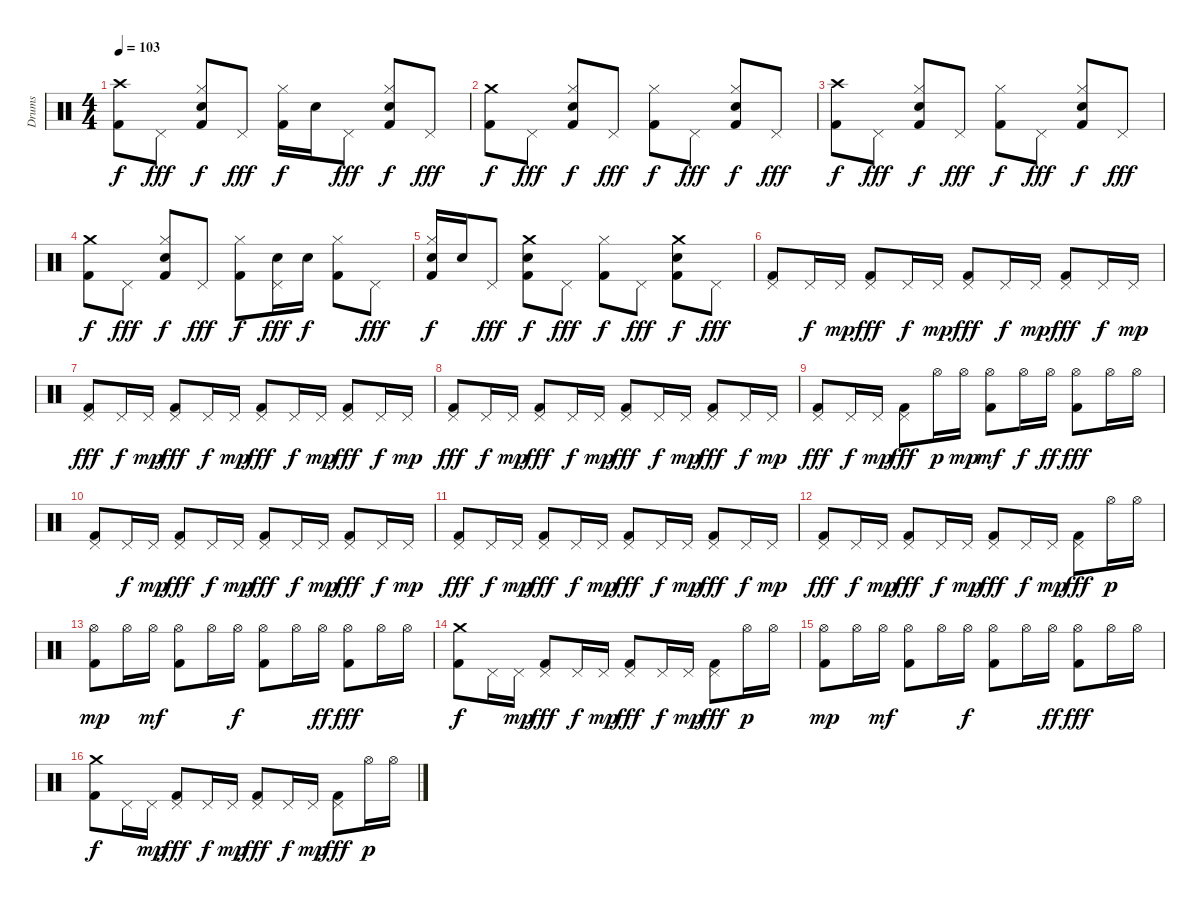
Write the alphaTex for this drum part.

\track ("Drums" "Drums") {instrument percussion}
\staff {score}
\articulation defaults
\ts (4 4)
\tempo 103
\clef neutral
\ks c
("Kick (hit) 2" "Crash high (hit)").8{dy f} "Pedal Hi-Hat (hit)".8{dy fff} ("Kick (hit) 2" "Hi-Hat (closed)" "Snare (hit) 2").8{dy f} "Pedal Hi-Hat (hit)".8{dy fff} ("Kick (hit) 2" "Hi-Hat (closed)").16{dy f} "Snare (hit) 2".16 "Pedal Hi-Hat (hit)".8{dy fff} ("Kick (hit) 2" "Hi-Hat (closed)" "Snare (hit) 2").8{dy f} "Pedal Hi-Hat (hit)".8{dy fff} |
("Kick (hit) 2" "Crash medium (hit)").8{dy f} "Pedal Hi-Hat (hit)".8{dy fff} ("Kick (hit) 2" "Hi-Hat (closed)" "Snare (hit) 2").8{dy f} "Pedal Hi-Hat (hit)".8{dy fff} ("Kick (hit) 2" "Hi-Hat (closed)").8{dy f} "Pedal Hi-Hat (hit)".8{dy fff} ("Kick (hit) 2" "Hi-Hat (closed)" "Snare (hit) 2").8{dy f} "Pedal Hi-Hat (hit)".8{dy fff} |
("Kick (hit) 2" "Crash high (hit)").8{dy f} "Pedal Hi-Hat (hit)".8{dy fff} ("Kick (hit) 2" "Hi-Hat (closed)" "Snare (hit) 2").8{dy f} "Pedal Hi-Hat (hit)".8{dy fff} ("Kick (hit) 2" "Hi-Hat (closed)").8{dy f} "Pedal Hi-Hat (hit)".8{dy fff} ("Kick (hit) 2" "Hi-Hat (closed)" "Snare (hit) 2").8{dy f} "Pedal Hi-Hat (hit)".8{dy fff} |
("Kick (hit) 2" "Crash medium (hit)").8{dy f} "Pedal Hi-Hat (hit)".8{dy fff} ("Kick (hit) 2" "Hi-Hat (closed)" "Snare (hit) 2").8{dy f} "Pedal Hi-Hat (hit)".8{dy fff} ("Kick (hit) 2" "Hi-Hat (closed)").8{dy f} ("Pedal Hi-Hat (hit)" "Snare (hit) 2").16{dy fff} "Snare (hit) 2".16{dy f} ("Kick (hit) 2" "Hi-Hat (closed)").8 "Pedal Hi-Hat (hit)".8{dy fff} |
("Kick (hit) 2" "Hi-Hat (closed)" "Snare (hit) 2").16{dy f} "Snare (hit) 2".16 "Pedal Hi-Hat (hit)".8{dy fff} ("Kick (hit) 2" "Crash medium (hit)" "Snare (hit) 2").8{dy f} "Pedal Hi-Hat (hit)".8{dy fff} ("Kick (hit) 2" "Hi-Hat (closed)").8{dy f} "Pedal Hi-Hat (hit)".8{dy fff} ("Kick (hit) 2" "Crash medium (hit)" "Snare (hit) 2").8{dy f} "Pedal Hi-Hat (hit)".8{dy fff} |
("Kick (hit) 2" "Pedal Hi-Hat (hit)").8 "Pedal Hi-Hat (hit)".16{dy f} "Pedal Hi-Hat (hit)".16{dy mp} ("Kick (hit) 2" "Pedal Hi-Hat (hit)").8{dy fff} "Pedal Hi-Hat (hit)".16{dy f} "Pedal Hi-Hat (hit)".16{dy mp} ("Kick (hit) 2" "Pedal Hi-Hat (hit)").8{dy fff} "Pedal Hi-Hat (hit)".16{dy f} "Pedal Hi-Hat (hit)".16{dy mp} ("Kick (hit) 2" "Pedal Hi-Hat (hit)").8{dy fff} "Pedal Hi-Hat (hit)".16{dy f} "Pedal Hi-Hat (hit)".16{dy mp} |
("Kick (hit) 2" "Pedal Hi-Hat (hit)").8{dy fff} "Pedal Hi-Hat (hit)".16{dy f} "Pedal Hi-Hat (hit)".16{dy mp} ("Kick (hit) 2" "Pedal Hi-Hat (hit)").8{dy fff} "Pedal Hi-Hat (hit)".16{dy f} "Pedal Hi-Hat (hit)".16{dy mp} ("Kick (hit) 2" "Pedal Hi-Hat (hit)").8{dy fff} "Pedal Hi-Hat (hit)".16{dy f} "Pedal Hi-Hat (hit)".16{dy mp} ("Kick (hit) 2" "Pedal Hi-Hat (hit)").8{dy fff} "Pedal Hi-Hat (hit)".16{dy f} "Pedal Hi-Hat (hit)".16{dy mp} |
("Kick (hit) 2" "Pedal Hi-Hat (hit)").8{dy fff} "Pedal Hi-Hat (hit)".16{dy f} "Pedal Hi-Hat (hit)".16{dy mp} ("Kick (hit) 2" "Pedal Hi-Hat (hit)").8{dy fff} "Pedal Hi-Hat (hit)".16{dy f} "Pedal Hi-Hat (hit)".16{dy mp} ("Kick (hit) 2" "Pedal Hi-Hat (hit)").8{dy fff} "Pedal Hi-Hat (hit)".16{dy f} "Pedal Hi-Hat (hit)".16{dy mp} ("Kick (hit) 2" "Pedal Hi-Hat (hit)").8{dy fff} "Pedal Hi-Hat (hit)".16{dy f} "Pedal Hi-Hat (hit)".16{dy mp} |
("Kick (hit) 2" "Pedal Hi-Hat (hit)").8{dy fff} "Pedal Hi-Hat (hit)".16{dy f} "Pedal Hi-Hat (hit)".16{dy mp} ("Kick (hit) 2" "Pedal Hi-Hat (hit)").8{dy fff} "Hi-Hat (open)".16{dy p} "Hi-Hat (open)".16{dy mp} ("Kick (hit) 2" "Hi-Hat (open)").8{dy mf} "Hi-Hat (open)".16{dy f} "Hi-Hat (open)".16{dy ff} ("Kick (hit) 2" "Hi-Hat (open)").8{dy fff} "Hi-Hat (open)".16 "Hi-Hat (open)".16 |
("Kick (hit) 2" "Pedal Hi-Hat (hit)").8 "Pedal Hi-Hat (hit)".16{dy f} "Pedal Hi-Hat (hit)".16{dy mp} ("Kick (hit) 2" "Pedal Hi-Hat (hit)").8{dy fff} "Pedal Hi-Hat (hit)".16{dy f} "Pedal Hi-Hat (hit)".16{dy mp} ("Kick (hit) 2" "Pedal Hi-Hat (hit)").8{dy fff} "Pedal Hi-Hat (hit)".16{dy f} "Pedal Hi-Hat (hit)".16{dy mp} ("Kick (hit) 2" "Pedal Hi-Hat (hit)").8{dy fff} "Pedal Hi-Hat (hit)".16{dy f} "Pedal Hi-Hat (hit)".16{dy mp} |
("Kick (hit) 2" "Pedal Hi-Hat (hit)").8{dy fff} "Pedal Hi-Hat (hit)".16{dy f} "Pedal Hi-Hat (hit)".16{dy mp} ("Kick (hit) 2" "Pedal Hi-Hat (hit)").8{dy fff} "Pedal Hi-Hat (hit)".16{dy f} "Pedal Hi-Hat (hit)".16{dy mp} ("Kick (hit) 2" "Pedal Hi-Hat (hit)").8{dy fff} "Pedal Hi-Hat (hit)".16{dy f} "Pedal Hi-Hat (hit)".16{dy mp} ("Kick (hit) 2" "Pedal Hi-Hat (hit)").8{dy fff} "Pedal Hi-Hat (hit)".16{dy f} "Pedal Hi-Hat (hit)".16{dy mp} |
("Kick (hit) 2" "Pedal Hi-Hat (hit)").8{dy fff} "Pedal Hi-Hat (hit)".16{dy f} "Pedal Hi-Hat (hit)".16{dy mp} ("Kick (hit) 2" "Pedal Hi-Hat (hit)").8{dy fff} "Pedal Hi-Hat (hit)".16{dy f} "Pedal Hi-Hat (hit)".16{dy mp} ("Kick (hit) 2" "Pedal Hi-Hat (hit)").8{dy fff} "Pedal Hi-Hat (hit)".16{dy f} "Pedal Hi-Hat (hit)".16{dy mp} ("Kick (hit) 2" "Pedal Hi-Hat (hit)").8{dy fff} "Hi-Hat (open)".16{dy p} "Hi-Hat (open)".16 |
("Kick (hit) 2" "Hi-Hat (open)").8{dy mp} "Hi-Hat (open)".16 "Hi-Hat (open)".16{dy mf} ("Kick (hit) 2" "Hi-Hat (open)").8 "Hi-Hat (open)".16 "Hi-Hat (open)".16{dy f} ("Kick (hit) 2" "Hi-Hat (open)").8 "Hi-Hat (open)".16 "Hi-Hat (open)".16{dy ff} ("Kick (hit) 2" "Hi-Hat (open)").8{dy fff} "Hi-Hat (open)".16 "Hi-Hat (open)".16 |
("Kick (hit) 2" "Crash medium (hit)").8{dy f} "Pedal Hi-Hat (hit)".16 "Pedal Hi-Hat (hit)".16{dy mp} ("Kick (hit) 2" "Pedal Hi-Hat (hit)").8{dy fff} "Pedal Hi-Hat (hit)".16{dy f} "Pedal Hi-Hat (hit)".16{dy mp} ("Kick (hit) 2" "Pedal Hi-Hat (hit)").8{dy fff} "Pedal Hi-Hat (hit)".16{dy f} "Pedal Hi-Hat (hit)".16{dy mp} ("Kick (hit) 2" "Pedal Hi-Hat (hit)").8{dy fff} "Hi-Hat (open)".16{dy p} "Hi-Hat (open)".16 |
("Kick (hit) 2" "Hi-Hat (open)").8{dy mp} "Hi-Hat (open)".16 "Hi-Hat (open)".16{dy mf} ("Kick (hit) 2" "Hi-Hat (open)").8 "Hi-Hat (open)".16 "Hi-Hat (open)".16{dy f} ("Kick (hit) 2" "Hi-Hat (open)").8 "Hi-Hat (open)".16 "Hi-Hat (open)".16{dy ff} ("Kick (hit) 2" "Hi-Hat (open)").8{dy fff} "Hi-Hat (open)".16 "Hi-Hat (open)".16 |
("Kick (hit) 2" "Crash medium (hit)").8{dy f} "Pedal Hi-Hat (hit)".16 "Pedal Hi-Hat (hit)".16{dy mp} ("Kick (hit) 2" "Pedal Hi-Hat (hit)").8{dy fff} "Pedal Hi-Hat (hit)".16{dy f} "Pedal Hi-Hat (hit)".16{dy mp} ("Kick (hit) 2" "Pedal Hi-Hat (hit)").8{dy fff} "Pedal Hi-Hat (hit)".16{dy f} "Pedal Hi-Hat (hit)".16{dy mp} ("Kick (hit) 2" "Pedal Hi-Hat (hit)").8{dy fff} "Hi-Hat (open)".16{dy p} "Hi-Hat (open)".16
